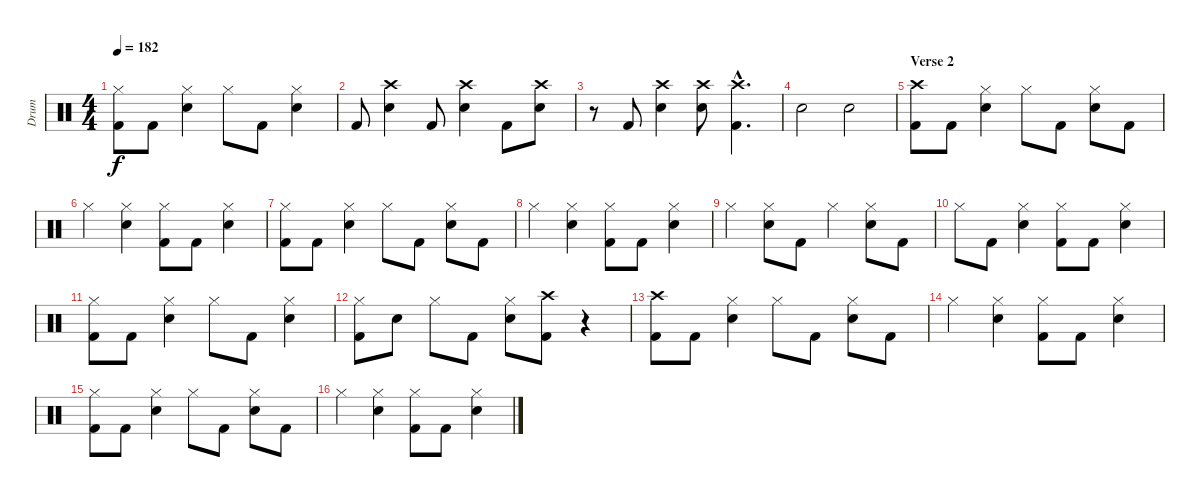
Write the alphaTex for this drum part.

\track ("Drum" "Drum") {instrument percussion}
\staff {score}
\articulation defaults
\ts (4 4)
\tempo 182
\clef neutral
\ks c
("Hi-Hat (closed)" "Kick (hit) 2").8{dy f} "Kick (hit) 2".8 ("Hi-Hat (closed)" "Electric Snare (hit)").4 "Hi-Hat (closed)".8 "Kick (hit) 2".8 ("Hi-Hat (closed)" "Electric Snare (hit)").4 |
"Kick (hit) 2".8 ("Crash high (hit)" "Electric Snare (hit)").4 "Kick (hit) 2".8 ("Crash high (hit)" "Electric Snare (hit)").4 "Kick (hit) 2".8 ("Crash high (hit)" "Electric Snare (hit)").8 |
r.8 "Kick (hit) 2".8 ("Crash high (hit)" "Electric Snare (hit)").4 ("Crash high (hit)" "Electric Snare (hit)").8 ("Crash high (hit)"{hac} "Kick (hit) 2"{hac}).4{d} |
"Electric Snare (hit)".2 "Electric Snare (hit)".2 |
\section ("" "Verse 2")
("Crash high (hit)" "Kick (hit) 2").8 "Kick (hit) 2".8 ("Hi-Hat (closed)" "Electric Snare (hit)").4 "Hi-Hat (closed)".8 "Kick (hit) 2".8 ("Hi-Hat (closed)" "Electric Snare (hit)").8 "Kick (hit) 2".8 |
"Hi-Hat (closed)".4 ("Hi-Hat (closed)" "Electric Snare (hit)").4 ("Hi-Hat (closed)" "Kick (hit) 2").8 "Kick (hit) 2".8 ("Hi-Hat (closed)" "Electric Snare (hit)").4 |
("Hi-Hat (closed)" "Kick (hit) 2").8 "Kick (hit) 2".8 ("Hi-Hat (closed)" "Electric Snare (hit)").4 "Hi-Hat (closed)".8 "Kick (hit) 2".8 ("Hi-Hat (closed)" "Electric Snare (hit)").8 "Kick (hit) 2".8 |
"Hi-Hat (closed)".4 ("Hi-Hat (closed)" "Electric Snare (hit)").4 ("Hi-Hat (closed)" "Kick (hit) 2").8 "Kick (hit) 2".8 ("Hi-Hat (closed)" "Electric Snare (hit)").4 |
"Hi-Hat (closed)".4 ("Hi-Hat (closed)" "Electric Snare (hit)").8 "Kick (hit) 2".8 "Hi-Hat (closed)".4 ("Hi-Hat (closed)" "Electric Snare (hit)").8 "Kick (hit) 2".8 |
"Hi-Hat (closed)".8 "Kick (hit) 2".8 ("Hi-Hat (closed)" "Electric Snare (hit)").4 ("Hi-Hat (closed)" "Kick (hit) 2").8 "Kick (hit) 2".8 ("Hi-Hat (closed)" "Electric Snare (hit)").4 |
("Hi-Hat (closed)" "Kick (hit) 2").8 "Kick (hit) 2".8 ("Hi-Hat (closed)" "Electric Snare (hit)").4 "Hi-Hat (closed)".8 "Kick (hit) 2".8 ("Hi-Hat (closed)" "Electric Snare (hit)").4 |
("Hi-Hat (closed)" "Kick (hit) 2").8 "Electric Snare (hit)".8 "Hi-Hat (closed)".8 "Kick (hit) 2".8 ("Hi-Hat (closed)" "Electric Snare (hit)").8 ("Crash high (hit)" "Kick (hit) 2").8 r.4 |
("Crash high (hit)" "Kick (hit) 2").8 "Kick (hit) 2".8 ("Hi-Hat (closed)" "Electric Snare (hit)").4 "Hi-Hat (closed)".8 "Kick (hit) 2".8 ("Hi-Hat (closed)" "Electric Snare (hit)").8 "Kick (hit) 2".8 |
"Hi-Hat (closed)".4 ("Hi-Hat (closed)" "Electric Snare (hit)").4 ("Hi-Hat (closed)" "Kick (hit) 2").8 "Kick (hit) 2".8 ("Hi-Hat (closed)" "Electric Snare (hit)").4 |
("Hi-Hat (closed)" "Kick (hit) 2").8 "Kick (hit) 2".8 ("Hi-Hat (closed)" "Electric Snare (hit)").4 "Hi-Hat (closed)".8 "Kick (hit) 2".8 ("Hi-Hat (closed)" "Electric Snare (hit)").8 "Kick (hit) 2".8 |
"Hi-Hat (closed)".4 ("Hi-Hat (closed)" "Electric Snare (hit)").4 ("Hi-Hat (closed)" "Kick (hit) 2").8 "Kick (hit) 2".8 ("Hi-Hat (closed)" "Electric Snare (hit)").4
